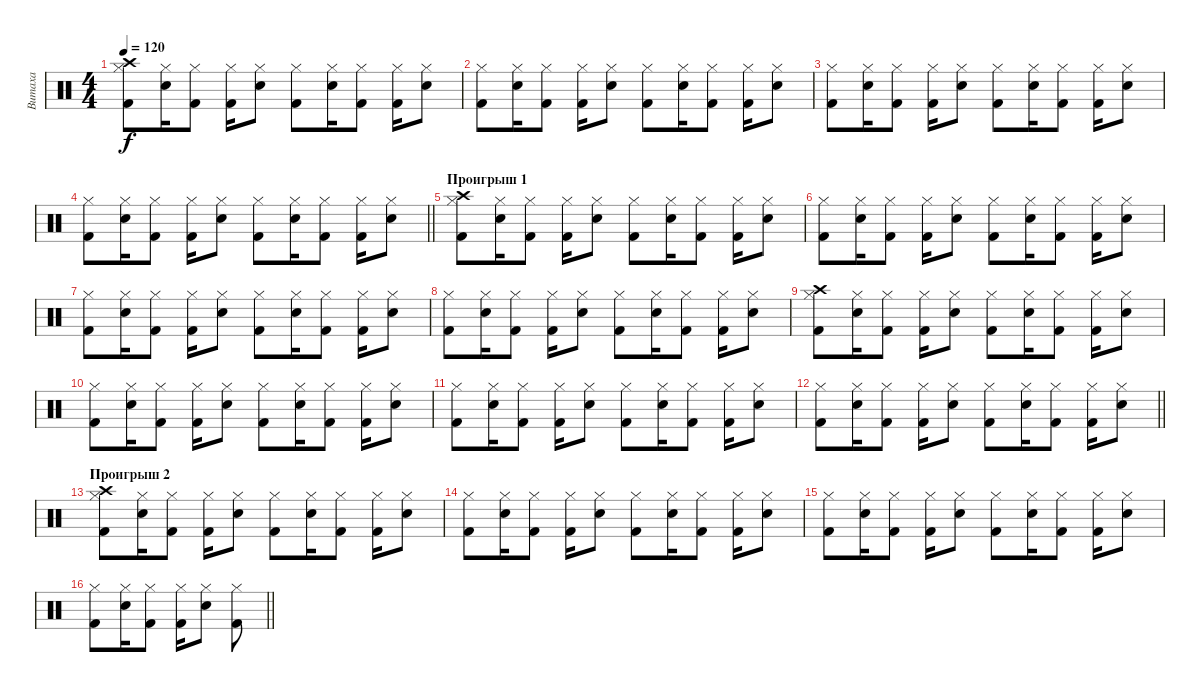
\track ("Витаха" "Витаха") {instrument percussion}
\staff {score}
\articulation defaults
\ts (4 4)
\tempo 120
\clef neutral
\ks c
("Kick (hit) 2" "Crash high (hit)" "Hi-Hat (closed)").8{dy f} ("Electric Snare (hit)" "Hi-Hat (closed)").16 ("Kick (hit) 2" "Hi-Hat (closed)").8 ("Kick (hit) 2" "Hi-Hat (closed)").16 ("Electric Snare (hit)" "Hi-Hat (closed)").8 ("Kick (hit) 2" "Hi-Hat (closed)").8 ("Electric Snare (hit)" "Hi-Hat (closed)").16 ("Kick (hit) 2" "Hi-Hat (closed)").8 ("Kick (hit) 2" "Hi-Hat (closed)").16 ("Electric Snare (hit)" "Hi-Hat (closed)").8 |
("Kick (hit) 2" "Hi-Hat (closed)").8 ("Electric Snare (hit)" "Hi-Hat (closed)").16 ("Kick (hit) 2" "Hi-Hat (closed)").8 ("Kick (hit) 2" "Hi-Hat (closed)").16 ("Electric Snare (hit)" "Hi-Hat (closed)").8 ("Kick (hit) 2" "Hi-Hat (closed)").8 ("Electric Snare (hit)" "Hi-Hat (closed)").16 ("Kick (hit) 2" "Hi-Hat (closed)").8 ("Kick (hit) 2" "Hi-Hat (closed)").16 ("Electric Snare (hit)" "Hi-Hat (closed)").8 |
("Kick (hit) 2" "Hi-Hat (closed)").8 ("Electric Snare (hit)" "Hi-Hat (closed)").16 ("Kick (hit) 2" "Hi-Hat (closed)").8 ("Kick (hit) 2" "Hi-Hat (closed)").16 ("Electric Snare (hit)" "Hi-Hat (closed)").8 ("Kick (hit) 2" "Hi-Hat (closed)").8 ("Electric Snare (hit)" "Hi-Hat (closed)").16 ("Kick (hit) 2" "Hi-Hat (closed)").8 ("Kick (hit) 2" "Hi-Hat (closed)").16 ("Electric Snare (hit)" "Hi-Hat (closed)").8 |
\barLineRight lightlight
("Kick (hit) 2" "Hi-Hat (closed)").8 ("Electric Snare (hit)" "Hi-Hat (closed)").16 ("Kick (hit) 2" "Hi-Hat (closed)").8 ("Kick (hit) 2" "Hi-Hat (closed)").16 ("Electric Snare (hit)" "Hi-Hat (closed)").8 ("Kick (hit) 2" "Hi-Hat (closed)").8 ("Electric Snare (hit)" "Hi-Hat (closed)").16 ("Kick (hit) 2" "Hi-Hat (closed)").8 ("Kick (hit) 2" "Hi-Hat (closed)").16 ("Electric Snare (hit)" "Hi-Hat (closed)").8 |
\section ("" "Проигрыш 1")
("Kick (hit) 2" "Crash high (hit)" "Hi-Hat (closed)").8 ("Electric Snare (hit)" "Hi-Hat (closed)").16 ("Kick (hit) 2" "Hi-Hat (closed)").8 ("Kick (hit) 2" "Hi-Hat (closed)").16 ("Electric Snare (hit)" "Hi-Hat (closed)").8 ("Kick (hit) 2" "Hi-Hat (closed)").8 ("Electric Snare (hit)" "Hi-Hat (closed)").16 ("Kick (hit) 2" "Hi-Hat (closed)").8 ("Kick (hit) 2" "Hi-Hat (closed)").16 ("Electric Snare (hit)" "Hi-Hat (closed)").8 |
("Kick (hit) 2" "Hi-Hat (closed)").8 ("Electric Snare (hit)" "Hi-Hat (closed)").16 ("Kick (hit) 2" "Hi-Hat (closed)").8 ("Kick (hit) 2" "Hi-Hat (closed)").16 ("Electric Snare (hit)" "Hi-Hat (closed)").8 ("Kick (hit) 2" "Hi-Hat (closed)").8 ("Electric Snare (hit)" "Hi-Hat (closed)").16 ("Kick (hit) 2" "Hi-Hat (closed)").8 ("Kick (hit) 2" "Hi-Hat (closed)").16 ("Electric Snare (hit)" "Hi-Hat (closed)").8 |
("Kick (hit) 2" "Hi-Hat (closed)").8 ("Electric Snare (hit)" "Hi-Hat (closed)").16 ("Kick (hit) 2" "Hi-Hat (closed)").8 ("Kick (hit) 2" "Hi-Hat (closed)").16 ("Electric Snare (hit)" "Hi-Hat (closed)").8 ("Kick (hit) 2" "Hi-Hat (closed)").8 ("Electric Snare (hit)" "Hi-Hat (closed)").16 ("Kick (hit) 2" "Hi-Hat (closed)").8 ("Kick (hit) 2" "Hi-Hat (closed)").16 ("Electric Snare (hit)" "Hi-Hat (closed)").8 |
("Kick (hit) 2" "Hi-Hat (closed)").8 ("Electric Snare (hit)" "Hi-Hat (closed)").16 ("Kick (hit) 2" "Hi-Hat (closed)").8 ("Kick (hit) 2" "Hi-Hat (closed)").16 ("Electric Snare (hit)" "Hi-Hat (closed)").8 ("Kick (hit) 2" "Hi-Hat (closed)").8 ("Electric Snare (hit)" "Hi-Hat (closed)").16 ("Kick (hit) 2" "Hi-Hat (closed)").8 ("Kick (hit) 2" "Hi-Hat (closed)").16 ("Electric Snare (hit)" "Hi-Hat (closed)").8 |
("Kick (hit) 2" "Crash high (hit)" "Hi-Hat (closed)").8 ("Electric Snare (hit)" "Hi-Hat (closed)").16 ("Kick (hit) 2" "Hi-Hat (closed)").8 ("Kick (hit) 2" "Hi-Hat (closed)").16 ("Electric Snare (hit)" "Hi-Hat (closed)").8 ("Kick (hit) 2" "Hi-Hat (closed)").8 ("Electric Snare (hit)" "Hi-Hat (closed)").16 ("Kick (hit) 2" "Hi-Hat (closed)").8 ("Kick (hit) 2" "Hi-Hat (closed)").16 ("Electric Snare (hit)" "Hi-Hat (closed)").8 |
("Kick (hit) 2" "Hi-Hat (closed)").8 ("Electric Snare (hit)" "Hi-Hat (closed)").16 ("Kick (hit) 2" "Hi-Hat (closed)").8 ("Kick (hit) 2" "Hi-Hat (closed)").16 ("Electric Snare (hit)" "Hi-Hat (closed)").8 ("Kick (hit) 2" "Hi-Hat (closed)").8 ("Electric Snare (hit)" "Hi-Hat (closed)").16 ("Kick (hit) 2" "Hi-Hat (closed)").8 ("Kick (hit) 2" "Hi-Hat (closed)").16 ("Electric Snare (hit)" "Hi-Hat (closed)").8 |
("Kick (hit) 2" "Hi-Hat (closed)").8 ("Electric Snare (hit)" "Hi-Hat (closed)").16 ("Kick (hit) 2" "Hi-Hat (closed)").8 ("Kick (hit) 2" "Hi-Hat (closed)").16 ("Electric Snare (hit)" "Hi-Hat (closed)").8 ("Kick (hit) 2" "Hi-Hat (closed)").8 ("Electric Snare (hit)" "Hi-Hat (closed)").16 ("Kick (hit) 2" "Hi-Hat (closed)").8 ("Kick (hit) 2" "Hi-Hat (closed)").16 ("Electric Snare (hit)" "Hi-Hat (closed)").8 |
\barLineRight lightlight
("Kick (hit) 2" "Hi-Hat (closed)").8 ("Electric Snare (hit)" "Hi-Hat (closed)").16 ("Kick (hit) 2" "Hi-Hat (closed)").8 ("Kick (hit) 2" "Hi-Hat (closed)").16 ("Electric Snare (hit)" "Hi-Hat (closed)").8 ("Kick (hit) 2" "Hi-Hat (closed)").8 ("Electric Snare (hit)" "Hi-Hat (closed)").16 ("Kick (hit) 2" "Hi-Hat (closed)").8 ("Kick (hit) 2" "Hi-Hat (closed)").16 ("Electric Snare (hit)" "Hi-Hat (closed)").8 |
\section ("" "Проигрыш 2")
("Kick (hit) 2" "Crash high (hit)" "Hi-Hat (closed)").8 ("Electric Snare (hit)" "Hi-Hat (closed)").16 ("Kick (hit) 2" "Hi-Hat (closed)").8 ("Kick (hit) 2" "Hi-Hat (closed)").16 ("Electric Snare (hit)" "Hi-Hat (closed)").8 ("Kick (hit) 2" "Hi-Hat (closed)").8 ("Electric Snare (hit)" "Hi-Hat (closed)").16 ("Kick (hit) 2" "Hi-Hat (closed)").8 ("Kick (hit) 2" "Hi-Hat (closed)").16 ("Electric Snare (hit)" "Hi-Hat (closed)").8 |
("Kick (hit) 2" "Hi-Hat (closed)").8 ("Electric Snare (hit)" "Hi-Hat (closed)").16 ("Kick (hit) 2" "Hi-Hat (closed)").8 ("Kick (hit) 2" "Hi-Hat (closed)").16 ("Electric Snare (hit)" "Hi-Hat (closed)").8 ("Kick (hit) 2" "Hi-Hat (closed)").8 ("Electric Snare (hit)" "Hi-Hat (closed)").16 ("Kick (hit) 2" "Hi-Hat (closed)").8 ("Kick (hit) 2" "Hi-Hat (closed)").16 ("Electric Snare (hit)" "Hi-Hat (closed)").8 |
("Kick (hit) 2" "Hi-Hat (closed)").8 ("Electric Snare (hit)" "Hi-Hat (closed)").16 ("Kick (hit) 2" "Hi-Hat (closed)").8 ("Kick (hit) 2" "Hi-Hat (closed)").16 ("Electric Snare (hit)" "Hi-Hat (closed)").8 ("Kick (hit) 2" "Hi-Hat (closed)").8 ("Electric Snare (hit)" "Hi-Hat (closed)").16 ("Kick (hit) 2" "Hi-Hat (closed)").8 ("Kick (hit) 2" "Hi-Hat (closed)").16 ("Electric Snare (hit)" "Hi-Hat (closed)").8 |
\barLineRight lightlight
("Kick (hit) 2" "Hi-Hat (closed)").8 ("Electric Snare (hit)" "Hi-Hat (closed)").16 ("Kick (hit) 2" "Hi-Hat (closed)").8 ("Kick (hit) 2" "Hi-Hat (closed)").16 ("Electric Snare (hit)" "Hi-Hat (closed)").8 ("Kick (hit) 2" "Hi-Hat (closed)").8
